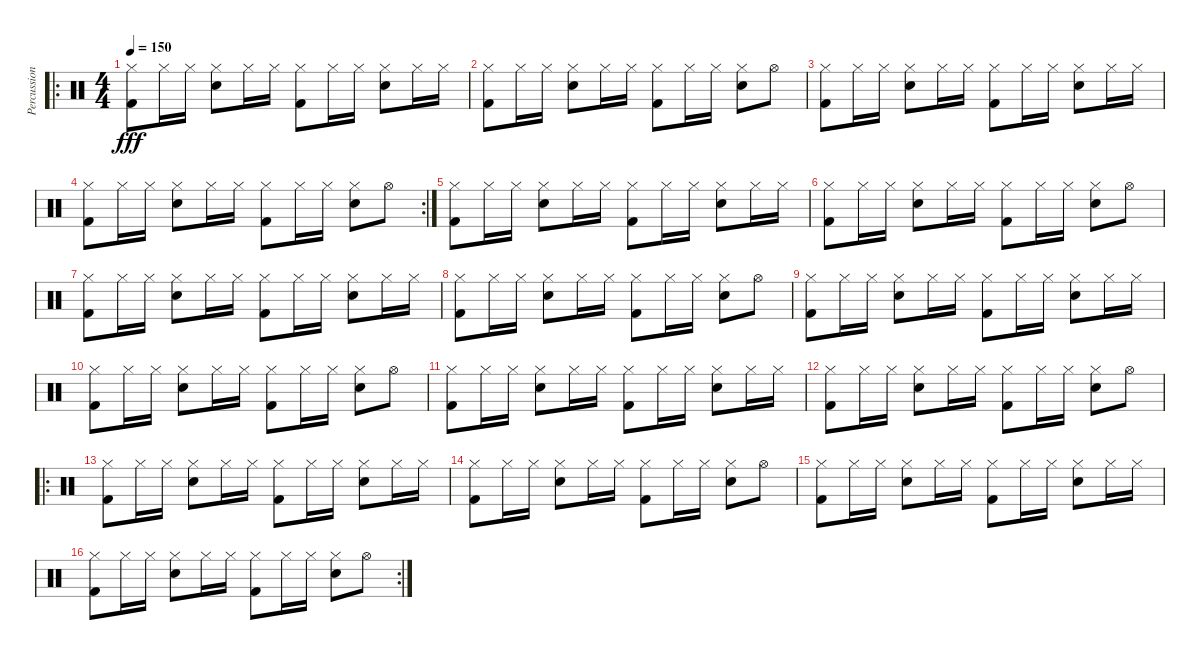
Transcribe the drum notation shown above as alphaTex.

\track ("Percussion" "Percussion") {instrument percussion}
\staff {score}
\articulation defaults
\ro
\ts (4 4)
\section ("" "")
\tempo 150
\clef neutral
\ks c
("Hi-Hat (closed)" "Kick (hit) 2").8{dy fff} "Hi-Hat (closed)".16 "Hi-Hat (closed)".16 ("Hi-Hat (closed)" "Snare (hit) 2").8 "Hi-Hat (closed)".16 "Hi-Hat (closed)".16 ("Hi-Hat (closed)" "Kick (hit) 2").8 "Hi-Hat (closed)".16 "Hi-Hat (closed)".16 ("Hi-Hat (closed)" "Snare (hit) 2").8 "Hi-Hat (closed)".16 "Hi-Hat (closed)".16 |
("Hi-Hat (closed)" "Kick (hit) 2").8 "Hi-Hat (closed)".16 "Hi-Hat (closed)".16 ("Hi-Hat (closed)" "Snare (hit) 2").8 "Hi-Hat (closed)".16 "Hi-Hat (closed)".16 ("Hi-Hat (closed)" "Kick (hit) 2").8 "Hi-Hat (closed)".16 "Hi-Hat (closed)".16 ("Hi-Hat (closed)" "Snare (hit) 2").8 "Hi-Hat (open)".8 |
("Hi-Hat (closed)" "Kick (hit) 2").8 "Hi-Hat (closed)".16 "Hi-Hat (closed)".16 ("Hi-Hat (closed)" "Snare (hit) 2").8 "Hi-Hat (closed)".16 "Hi-Hat (closed)".16 ("Hi-Hat (closed)" "Kick (hit) 2").8 "Hi-Hat (closed)".16 "Hi-Hat (closed)".16 ("Hi-Hat (closed)" "Snare (hit) 2").8 "Hi-Hat (closed)".16 "Hi-Hat (closed)".16 |
\rc 2
("Hi-Hat (closed)" "Kick (hit) 2").8 "Hi-Hat (closed)".16 "Hi-Hat (closed)".16 ("Hi-Hat (closed)" "Snare (hit) 2").8 "Hi-Hat (closed)".16 "Hi-Hat (closed)".16 ("Hi-Hat (closed)" "Kick (hit) 2").8 "Hi-Hat (closed)".16 "Hi-Hat (closed)".16 ("Hi-Hat (closed)" "Snare (hit) 2").8 "Hi-Hat (open)".8 |
\section ("" " ")
("Hi-Hat (closed)" "Kick (hit) 2").8 "Hi-Hat (closed)".16 "Hi-Hat (closed)".16 ("Hi-Hat (closed)" "Snare (hit) 2").8 "Hi-Hat (closed)".16 "Hi-Hat (closed)".16 ("Hi-Hat (closed)" "Kick (hit) 2").8 "Hi-Hat (closed)".16 "Hi-Hat (closed)".16 ("Hi-Hat (closed)" "Snare (hit) 2").8 "Hi-Hat (closed)".16 "Hi-Hat (closed)".16 |
("Hi-Hat (closed)" "Kick (hit) 2").8 "Hi-Hat (closed)".16 "Hi-Hat (closed)".16 ("Hi-Hat (closed)" "Snare (hit) 2").8 "Hi-Hat (closed)".16 "Hi-Hat (closed)".16 ("Hi-Hat (closed)" "Kick (hit) 2").8 "Hi-Hat (closed)".16 "Hi-Hat (closed)".16 ("Hi-Hat (closed)" "Snare (hit) 2").8 "Hi-Hat (open)".8 |
("Hi-Hat (closed)" "Kick (hit) 2").8 "Hi-Hat (closed)".16 "Hi-Hat (closed)".16 ("Hi-Hat (closed)" "Snare (hit) 2").8 "Hi-Hat (closed)".16 "Hi-Hat (closed)".16 ("Hi-Hat (closed)" "Kick (hit) 2").8 "Hi-Hat (closed)".16 "Hi-Hat (closed)".16 ("Hi-Hat (closed)" "Snare (hit) 2").8 "Hi-Hat (closed)".16 "Hi-Hat (closed)".16 |
("Hi-Hat (closed)" "Kick (hit) 2").8 "Hi-Hat (closed)".16 "Hi-Hat (closed)".16 ("Hi-Hat (closed)" "Snare (hit) 2").8 "Hi-Hat (closed)".16 "Hi-Hat (closed)".16 ("Hi-Hat (closed)" "Kick (hit) 2").8 "Hi-Hat (closed)".16 "Hi-Hat (closed)".16 ("Hi-Hat (closed)" "Snare (hit) 2").8 "Hi-Hat (open)".8 |
("Hi-Hat (closed)" "Kick (hit) 2").8 "Hi-Hat (closed)".16 "Hi-Hat (closed)".16 ("Hi-Hat (closed)" "Snare (hit) 2").8 "Hi-Hat (closed)".16 "Hi-Hat (closed)".16 ("Hi-Hat (closed)" "Kick (hit) 2").8 "Hi-Hat (closed)".16 "Hi-Hat (closed)".16 ("Hi-Hat (closed)" "Snare (hit) 2").8 "Hi-Hat (closed)".16 "Hi-Hat (closed)".16 |
("Hi-Hat (closed)" "Kick (hit) 2").8 "Hi-Hat (closed)".16 "Hi-Hat (closed)".16 ("Hi-Hat (closed)" "Snare (hit) 2").8 "Hi-Hat (closed)".16 "Hi-Hat (closed)".16 ("Hi-Hat (closed)" "Kick (hit) 2").8 "Hi-Hat (closed)".16 "Hi-Hat (closed)".16 ("Hi-Hat (closed)" "Snare (hit) 2").8 "Hi-Hat (open)".8 |
("Hi-Hat (closed)" "Kick (hit) 2").8 "Hi-Hat (closed)".16 "Hi-Hat (closed)".16 ("Hi-Hat (closed)" "Snare (hit) 2").8 "Hi-Hat (closed)".16 "Hi-Hat (closed)".16 ("Hi-Hat (closed)" "Kick (hit) 2").8 "Hi-Hat (closed)".16 "Hi-Hat (closed)".16 ("Hi-Hat (closed)" "Snare (hit) 2").8 "Hi-Hat (closed)".16 "Hi-Hat (closed)".16 |
("Hi-Hat (closed)" "Kick (hit) 2").8 "Hi-Hat (closed)".16 "Hi-Hat (closed)".16 ("Hi-Hat (closed)" "Snare (hit) 2").8 "Hi-Hat (closed)".16 "Hi-Hat (closed)".16 ("Hi-Hat (closed)" "Kick (hit) 2").8 "Hi-Hat (closed)".16 "Hi-Hat (closed)".16 ("Hi-Hat (closed)" "Snare (hit) 2").8 "Hi-Hat (open)".8 |
\ro
\section ("" "")
("Hi-Hat (closed)" "Kick (hit) 2").8 "Hi-Hat (closed)".16 "Hi-Hat (closed)".16 ("Hi-Hat (closed)" "Snare (hit) 2").8 "Hi-Hat (closed)".16 "Hi-Hat (closed)".16 ("Hi-Hat (closed)" "Kick (hit) 2").8 "Hi-Hat (closed)".16 "Hi-Hat (closed)".16 ("Hi-Hat (closed)" "Snare (hit) 2").8 "Hi-Hat (closed)".16 "Hi-Hat (closed)".16 |
("Hi-Hat (closed)" "Kick (hit) 2").8 "Hi-Hat (closed)".16 "Hi-Hat (closed)".16 ("Hi-Hat (closed)" "Snare (hit) 2").8 "Hi-Hat (closed)".16 "Hi-Hat (closed)".16 ("Hi-Hat (closed)" "Kick (hit) 2").8 "Hi-Hat (closed)".16 "Hi-Hat (closed)".16 ("Hi-Hat (closed)" "Snare (hit) 2").8 "Hi-Hat (open)".8 |
("Hi-Hat (closed)" "Kick (hit) 2").8 "Hi-Hat (closed)".16 "Hi-Hat (closed)".16 ("Hi-Hat (closed)" "Snare (hit) 2").8 "Hi-Hat (closed)".16 "Hi-Hat (closed)".16 ("Hi-Hat (closed)" "Kick (hit) 2").8 "Hi-Hat (closed)".16 "Hi-Hat (closed)".16 ("Hi-Hat (closed)" "Snare (hit) 2").8 "Hi-Hat (closed)".16 "Hi-Hat (closed)".16 |
\rc 2
("Hi-Hat (closed)" "Kick (hit) 2").8 "Hi-Hat (closed)".16 "Hi-Hat (closed)".16 ("Hi-Hat (closed)" "Snare (hit) 2").8 "Hi-Hat (closed)".16 "Hi-Hat (closed)".16 ("Hi-Hat (closed)" "Kick (hit) 2").8 "Hi-Hat (closed)".16 "Hi-Hat (closed)".16 ("Hi-Hat (closed)" "Snare (hit) 2").8 "Hi-Hat (open)".8
